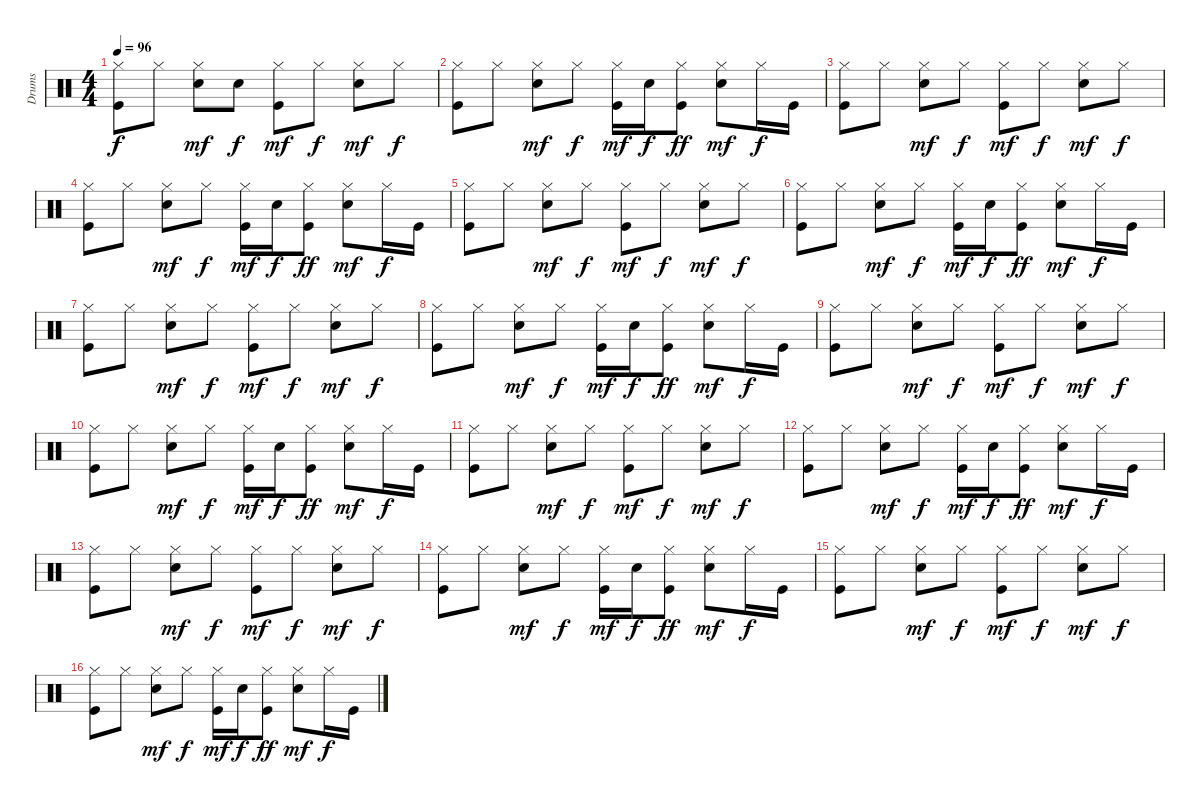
\track ("Drums" "Drums") {instrument percussion}
\staff {score}
\articulation defaults
\ts (4 4)
\tempo 96
\clef neutral
\ks c
("Kick (hit)" "Hi-Hat (closed)").8{dy f} "Hi-Hat (closed)".8 ("Hi-Hat (closed)" "Electric Snare (hit)").8{dy mf} "Snare (hit)".8{dy f} ("Kick (hit)" "Hi-Hat (closed)").8{dy mf} "Hi-Hat (closed)".8{dy f} ("Hi-Hat (closed)" "Electric Snare (hit)").8{dy mf} "Hi-Hat (closed)".8{dy f} |
("Kick (hit)" "Hi-Hat (closed)").8 "Hi-Hat (closed)".8 ("Hi-Hat (closed)" "Electric Snare (hit)").8{dy mf} "Hi-Hat (closed)".8{dy f} ("Kick (hit)" "Hi-Hat (closed)").16{dy mf} "Electric Snare (hit)".16{dy f} ("Kick (hit)" "Hi-Hat (closed)").8{dy ff} ("Hi-Hat (closed)" "Electric Snare (hit)").8{dy mf} "Hi-Hat (closed)".16{dy f} "Kick (hit)".16 |
("Kick (hit)" "Hi-Hat (closed)").8 "Hi-Hat (closed)".8 ("Hi-Hat (closed)" "Electric Snare (hit)").8{dy mf} "Hi-Hat (closed)".8{dy f} ("Kick (hit)" "Hi-Hat (closed)").8{dy mf} "Hi-Hat (closed)".8{dy f} ("Hi-Hat (closed)" "Electric Snare (hit)").8{dy mf} "Hi-Hat (closed)".8{dy f} |
("Kick (hit)" "Hi-Hat (closed)").8 "Hi-Hat (closed)".8 ("Hi-Hat (closed)" "Electric Snare (hit)").8{dy mf} "Hi-Hat (closed)".8{dy f} ("Kick (hit)" "Hi-Hat (closed)").16{dy mf} "Electric Snare (hit)".16{dy f} ("Kick (hit)" "Hi-Hat (closed)").8{dy ff} ("Hi-Hat (closed)" "Electric Snare (hit)").8{dy mf} "Hi-Hat (closed)".16{dy f} "Kick (hit)".16 |
("Kick (hit)" "Hi-Hat (closed)").8 "Hi-Hat (closed)".8 ("Hi-Hat (closed)" "Electric Snare (hit)").8{dy mf} "Hi-Hat (closed)".8{dy f} ("Kick (hit)" "Hi-Hat (closed)").8{dy mf} "Hi-Hat (closed)".8{dy f} ("Hi-Hat (closed)" "Electric Snare (hit)").8{dy mf} "Hi-Hat (closed)".8{dy f} |
("Kick (hit)" "Hi-Hat (closed)").8 "Hi-Hat (closed)".8 ("Hi-Hat (closed)" "Electric Snare (hit)").8{dy mf} "Hi-Hat (closed)".8{dy f} ("Kick (hit)" "Hi-Hat (closed)").16{dy mf} "Electric Snare (hit)".16{dy f} ("Kick (hit)" "Hi-Hat (closed)").8{dy ff} ("Hi-Hat (closed)" "Electric Snare (hit)").8{dy mf} "Hi-Hat (closed)".16{dy f} "Kick (hit)".16 |
("Kick (hit)" "Hi-Hat (closed)").8 "Hi-Hat (closed)".8 ("Hi-Hat (closed)" "Electric Snare (hit)").8{dy mf} "Hi-Hat (closed)".8{dy f} ("Kick (hit)" "Hi-Hat (closed)").8{dy mf} "Hi-Hat (closed)".8{dy f} ("Hi-Hat (closed)" "Electric Snare (hit)").8{dy mf} "Hi-Hat (closed)".8{dy f} |
("Kick (hit)" "Hi-Hat (closed)").8 "Hi-Hat (closed)".8 ("Hi-Hat (closed)" "Electric Snare (hit)").8{dy mf} "Hi-Hat (closed)".8{dy f} ("Kick (hit)" "Hi-Hat (closed)").16{dy mf} "Electric Snare (hit)".16{dy f} ("Kick (hit)" "Hi-Hat (closed)").8{dy ff} ("Hi-Hat (closed)" "Electric Snare (hit)").8{dy mf} "Hi-Hat (closed)".16{dy f} "Kick (hit)".16 |
("Kick (hit)" "Hi-Hat (closed)").8 "Hi-Hat (closed)".8 ("Hi-Hat (closed)" "Electric Snare (hit)").8{dy mf} "Hi-Hat (closed)".8{dy f} ("Kick (hit)" "Hi-Hat (closed)").8{dy mf} "Hi-Hat (closed)".8{dy f} ("Hi-Hat (closed)" "Electric Snare (hit)").8{dy mf} "Hi-Hat (closed)".8{dy f} |
("Kick (hit)" "Hi-Hat (closed)").8 "Hi-Hat (closed)".8 ("Hi-Hat (closed)" "Electric Snare (hit)").8{dy mf} "Hi-Hat (closed)".8{dy f} ("Kick (hit)" "Hi-Hat (closed)").16{dy mf} "Electric Snare (hit)".16{dy f} ("Kick (hit)" "Hi-Hat (closed)").8{dy ff} ("Hi-Hat (closed)" "Electric Snare (hit)").8{dy mf} "Hi-Hat (closed)".16{dy f} "Kick (hit)".16 |
("Kick (hit)" "Hi-Hat (closed)").8 "Hi-Hat (closed)".8 ("Hi-Hat (closed)" "Electric Snare (hit)").8{dy mf} "Hi-Hat (closed)".8{dy f} ("Kick (hit)" "Hi-Hat (closed)").8{dy mf} "Hi-Hat (closed)".8{dy f} ("Hi-Hat (closed)" "Electric Snare (hit)").8{dy mf} "Hi-Hat (closed)".8{dy f} |
("Kick (hit)" "Hi-Hat (closed)").8 "Hi-Hat (closed)".8 ("Hi-Hat (closed)" "Electric Snare (hit)").8{dy mf} "Hi-Hat (closed)".8{dy f} ("Kick (hit)" "Hi-Hat (closed)").16{dy mf} "Electric Snare (hit)".16{dy f} ("Kick (hit)" "Hi-Hat (closed)").8{dy ff} ("Hi-Hat (closed)" "Electric Snare (hit)").8{dy mf} "Hi-Hat (closed)".16{dy f} "Kick (hit)".16 |
("Kick (hit)" "Hi-Hat (closed)").8 "Hi-Hat (closed)".8 ("Hi-Hat (closed)" "Electric Snare (hit)").8{dy mf} "Hi-Hat (closed)".8{dy f} ("Kick (hit)" "Hi-Hat (closed)").8{dy mf} "Hi-Hat (closed)".8{dy f} ("Hi-Hat (closed)" "Electric Snare (hit)").8{dy mf} "Hi-Hat (closed)".8{dy f} |
("Kick (hit)" "Hi-Hat (closed)").8 "Hi-Hat (closed)".8 ("Hi-Hat (closed)" "Electric Snare (hit)").8{dy mf} "Hi-Hat (closed)".8{dy f} ("Kick (hit)" "Hi-Hat (closed)").16{dy mf} "Electric Snare (hit)".16{dy f} ("Kick (hit)" "Hi-Hat (closed)").8{dy ff} ("Hi-Hat (closed)" "Electric Snare (hit)").8{dy mf} "Hi-Hat (closed)".16{dy f} "Kick (hit)".16 |
("Kick (hit)" "Hi-Hat (closed)").8 "Hi-Hat (closed)".8 ("Hi-Hat (closed)" "Electric Snare (hit)").8{dy mf} "Hi-Hat (closed)".8{dy f} ("Kick (hit)" "Hi-Hat (closed)").8{dy mf} "Hi-Hat (closed)".8{dy f} ("Hi-Hat (closed)" "Electric Snare (hit)").8{dy mf} "Hi-Hat (closed)".8{dy f} |
("Kick (hit)" "Hi-Hat (closed)").8 "Hi-Hat (closed)".8 ("Hi-Hat (closed)" "Electric Snare (hit)").8{dy mf} "Hi-Hat (closed)".8{dy f} ("Kick (hit)" "Hi-Hat (closed)").16{dy mf} "Electric Snare (hit)".16{dy f} ("Kick (hit)" "Hi-Hat (closed)").8{dy ff} ("Hi-Hat (closed)" "Electric Snare (hit)").8{dy mf} "Hi-Hat (closed)".16{dy f} "Kick (hit)".16
